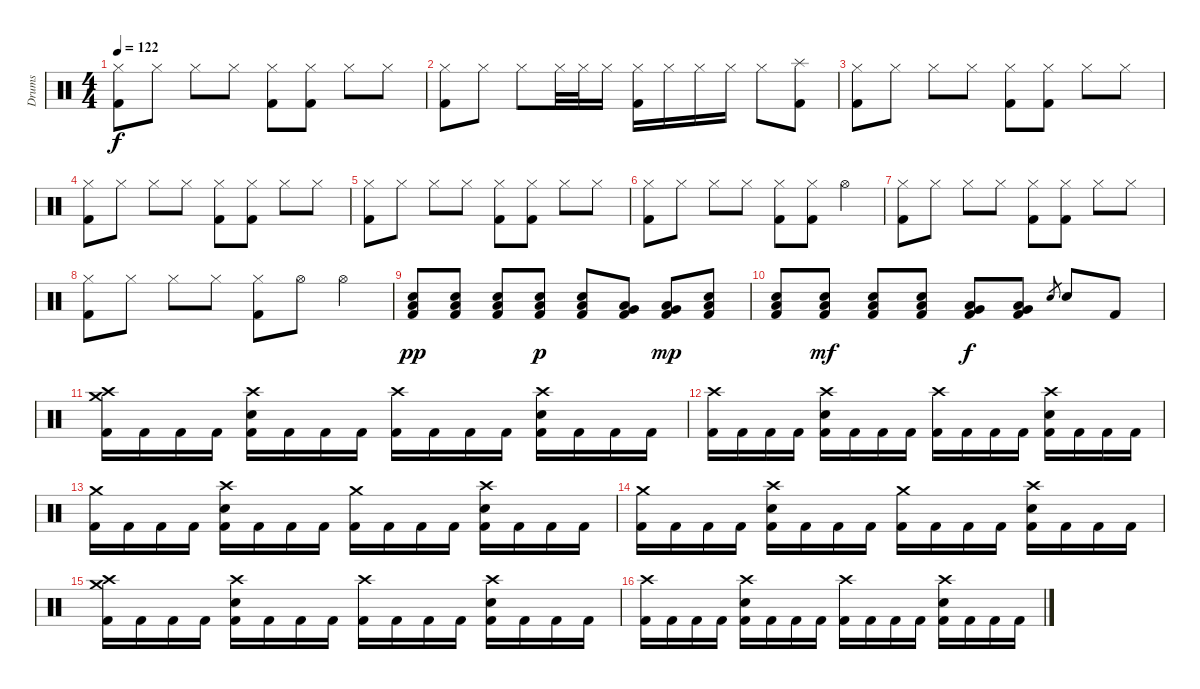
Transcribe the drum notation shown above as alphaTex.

\track ("Drums" "Drums") {instrument percussion}
\staff {score}
\articulation defaults
\ts (4 4)
\tempo 122
\clef neutral
\ks c
("Hi-Hat (closed)" "Kick (hit) 2").8{dy f} "Hi-Hat (closed)".8 "Hi-Hat (closed)".8 "Hi-Hat (closed)".8 ("Hi-Hat (closed)" "Kick (hit) 2").8 ("Hi-Hat (closed)" "Kick (hit) 2").8 "Hi-Hat (closed)".8 "Hi-Hat (closed)".8 |
("Hi-Hat (closed)" "Kick (hit) 2").8 "Hi-Hat (closed)".8 "Hi-Hat (closed)".8 "Hi-Hat (closed)".32 "Hi-Hat (closed)".32 "Hi-Hat (closed)".16 ("Hi-Hat (closed)" "Kick (hit) 2").16 "Hi-Hat (closed)".16 "Hi-Hat (closed)".16 "Hi-Hat (closed)".16 "Hi-Hat (closed)".8 ("Splash (hit)" "Kick (hit) 2").8 |
("Hi-Hat (closed)" "Kick (hit) 2").8 "Hi-Hat (closed)".8 "Hi-Hat (closed)".8 "Hi-Hat (closed)".8 ("Hi-Hat (closed)" "Kick (hit) 2").8 ("Hi-Hat (closed)" "Kick (hit) 2").8 "Hi-Hat (closed)".8 "Hi-Hat (closed)".8 |
("Hi-Hat (closed)" "Kick (hit) 2").8 "Hi-Hat (closed)".8 "Hi-Hat (closed)".8 "Hi-Hat (closed)".8 ("Hi-Hat (closed)" "Kick (hit) 2").8 ("Hi-Hat (closed)" "Kick (hit) 2").8 "Hi-Hat (closed)".8 "Hi-Hat (closed)".8 |
("Hi-Hat (closed)" "Kick (hit) 2").8 "Hi-Hat (closed)".8 "Hi-Hat (closed)".8 "Hi-Hat (closed)".8 ("Hi-Hat (closed)" "Kick (hit) 2").8 ("Hi-Hat (closed)" "Kick (hit) 2").8 "Hi-Hat (closed)".8 "Hi-Hat (closed)".8 |
("Hi-Hat (closed)" "Kick (hit) 2").8 "Hi-Hat (closed)".8 "Hi-Hat (closed)".8 "Hi-Hat (closed)".8 ("Hi-Hat (closed)" "Kick (hit) 2").8 ("Hi-Hat (closed)" "Kick (hit) 2").8 "Hi-Hat (open)".4 |
("Hi-Hat (closed)" "Kick (hit) 2").8 "Hi-Hat (closed)".8 "Hi-Hat (closed)".8 "Hi-Hat (closed)".8 ("Hi-Hat (closed)" "Kick (hit) 2").8 ("Hi-Hat (closed)" "Kick (hit) 2").8 "Hi-Hat (closed)".8 "Hi-Hat (closed)".8 |
("Hi-Hat (closed)" "Kick (hit) 2").8 "Hi-Hat (closed)".8 "Hi-Hat (closed)".8 "Hi-Hat (closed)".8 ("Hi-Hat (closed)" "Kick (hit) 2").8 "Hi-Hat (open)".8 "Hi-Hat (open)".4 |
("Low Floor Tom (hit)" "Electric Snare (hit)" "Kick (hit) 2").8{dy pp} ("Low Floor Tom (hit)" "Electric Snare (hit)" "Kick (hit) 2").8 ("Low Floor Tom (hit)" "Electric Snare (hit)" "Kick (hit) 2").8 ("Low Floor Tom (hit)" "Electric Snare (hit)" "Kick (hit) 2").8{dy p} ("Low Floor Tom (hit)" "Electric Snare (hit)" "Kick (hit) 2").8 ("Low Floor Tom (hit)" "Very Low Tom (hit)" "Kick (hit) 2").8 ("Low Floor Tom (hit)" "Very Low Tom (hit)" "Kick (hit) 2").8{dy mp} ("Low Floor Tom (hit)" "Electric Snare (hit)" "Kick (hit) 2").8 |
("Low Floor Tom (hit)" "Electric Snare (hit)" "Kick (hit) 2").8 ("Low Floor Tom (hit)" "Electric Snare (hit)" "Kick (hit) 2").8{dy mf} ("Low Floor Tom (hit)" "Electric Snare (hit)" "Kick (hit) 2").8 ("Low Floor Tom (hit)" "Electric Snare (hit)" "Kick (hit) 2").8 ("Low Floor Tom (hit)" "Very Low Tom (hit)" "Kick (hit) 2").8{dy f} ("Low Floor Tom (hit)" "Very Low Tom (hit)" "Kick (hit) 2").8 "Electric Snare (hit)".8{gr} "Electric Snare (hit)".8 "Kick (hit) 2".8 |
("Crash medium (hit)" "Crash high (hit)" "Kick (hit) 2").16 "Kick (hit) 2".16 "Kick (hit) 2".16 "Kick (hit) 2".16 ("Crash high (hit)" "Electric Snare (hit)" "Kick (hit) 2").16 "Kick (hit) 2".16 "Kick (hit) 2".16 "Kick (hit) 2".16 ("Crash high (hit)" "Kick (hit) 2").16 "Kick (hit) 2".16 "Kick (hit) 2".16 "Kick (hit) 2".16 ("Crash high (hit)" "Electric Snare (hit)" "Kick (hit) 2").16 "Kick (hit) 2".16 "Kick (hit) 2".16 "Kick (hit) 2".16 |
("Crash high (hit)" "Kick (hit) 2").16 "Kick (hit) 2".16 "Kick (hit) 2".16 "Kick (hit) 2".16 ("Crash high (hit)" "Electric Snare (hit)" "Kick (hit) 2").16 "Kick (hit) 2".16 "Kick (hit) 2".16 "Kick (hit) 2".16 ("Crash high (hit)" "Kick (hit) 2").16 "Kick (hit) 2".16 "Kick (hit) 2".16 "Kick (hit) 2".16 ("Crash high (hit)" "Electric Snare (hit)" "Kick (hit) 2").16 "Kick (hit) 2".16 "Kick (hit) 2".16 "Kick (hit) 2".16 |
("Crash medium (hit)" "Kick (hit) 2").16 "Kick (hit) 2".16 "Kick (hit) 2".16 "Kick (hit) 2".16 ("Crash high (hit)" "Electric Snare (hit)" "Kick (hit) 2").16 "Kick (hit) 2".16 "Kick (hit) 2".16 "Kick (hit) 2".16 ("Crash medium (hit)" "Kick (hit) 2").16 "Kick (hit) 2".16 "Kick (hit) 2".16 "Kick (hit) 2".16 ("Crash high (hit)" "Electric Snare (hit)" "Kick (hit) 2").16 "Kick (hit) 2".16 "Kick (hit) 2".16 "Kick (hit) 2".16 |
("Crash medium (hit)" "Kick (hit) 2").16 "Kick (hit) 2".16 "Kick (hit) 2".16 "Kick (hit) 2".16 ("Crash high (hit)" "Electric Snare (hit)" "Kick (hit) 2").16 "Kick (hit) 2".16 "Kick (hit) 2".16 "Kick (hit) 2".16 ("Crash medium (hit)" "Kick (hit) 2").16 "Kick (hit) 2".16 "Kick (hit) 2".16 "Kick (hit) 2".16 ("Crash high (hit)" "Electric Snare (hit)" "Kick (hit) 2").16 "Kick (hit) 2".16 "Kick (hit) 2".16 "Kick (hit) 2".16 |
("Crash medium (hit)" "Crash high (hit)" "Kick (hit) 2").16 "Kick (hit) 2".16 "Kick (hit) 2".16 "Kick (hit) 2".16 ("Crash high (hit)" "Electric Snare (hit)" "Kick (hit) 2").16 "Kick (hit) 2".16 "Kick (hit) 2".16 "Kick (hit) 2".16 ("Crash high (hit)" "Kick (hit) 2").16 "Kick (hit) 2".16 "Kick (hit) 2".16 "Kick (hit) 2".16 ("Crash high (hit)" "Electric Snare (hit)" "Kick (hit) 2").16 "Kick (hit) 2".16 "Kick (hit) 2".16 "Kick (hit) 2".16 |
("Crash high (hit)" "Kick (hit) 2").16 "Kick (hit) 2".16 "Kick (hit) 2".16 "Kick (hit) 2".16 ("Crash high (hit)" "Electric Snare (hit)" "Kick (hit) 2").16 "Kick (hit) 2".16 "Kick (hit) 2".16 "Kick (hit) 2".16 ("Crash high (hit)" "Kick (hit) 2").16 "Kick (hit) 2".16 "Kick (hit) 2".16 "Kick (hit) 2".16 ("Crash high (hit)" "Electric Snare (hit)" "Kick (hit) 2").16 "Kick (hit) 2".16 "Kick (hit) 2".16 "Kick (hit) 2".16
